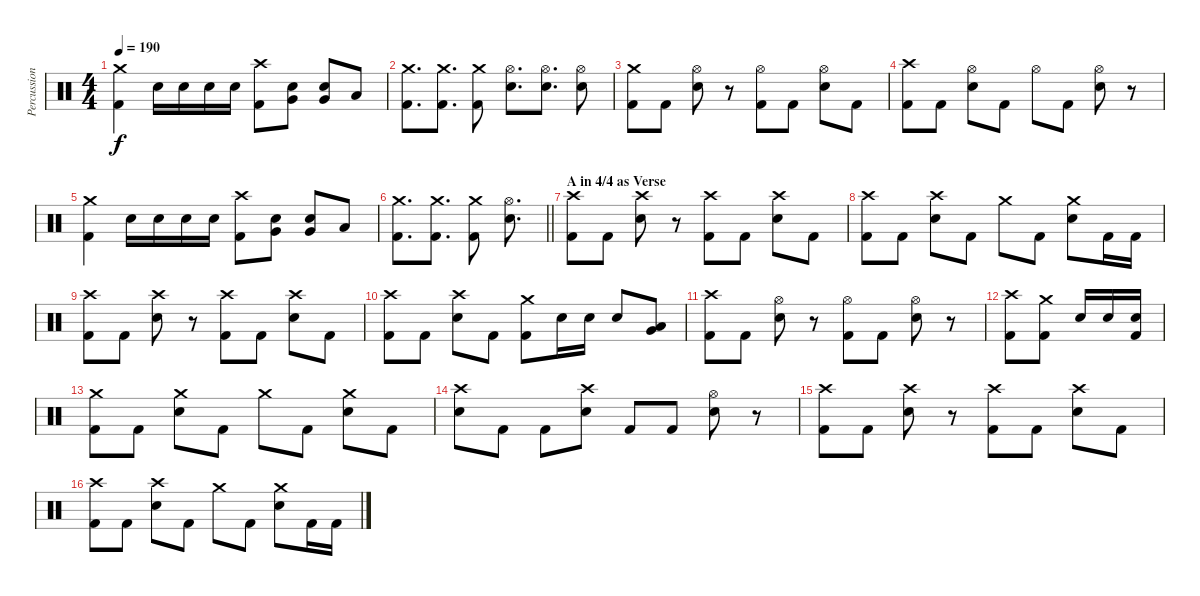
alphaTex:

\track ("Percussion" "Percussion") {instrument percussion}
\staff {score}
\articulation defaults
\ts (4 4)
\tempo 190
\clef neutral
\ks c
("Crash medium (hit)" "Kick (hit) 2").4{dy f} "Electric Snare (hit)".16 "Electric Snare (hit)".16 "Electric Snare (hit)".16 "Electric Snare (hit)".16 ("Crash high (hit)" "Kick (hit) 2").8 ("Very Low Tom (hit)" "Electric Snare (hit)").8 ("Very Low Tom (hit)" "Electric Snare (hit)").8 "Low Floor Tom (hit)".8 |
("Crash medium (hit)" "Kick (hit) 2").8{d} ("Crash medium (hit)" "Kick (hit) 2").8{d} ("Crash medium (hit)" "Kick (hit) 2").8 ("Hi-Hat (open)" "Electric Snare (hit)").8{d} ("Hi-Hat (open)" "Electric Snare (hit)").8{d} ("Hi-Hat (open)" "Electric Snare (hit)").8 |
("Crash medium (hit)" "Kick (hit) 2").8 "Kick (hit) 2".8 ("Hi-Hat (open)" "Electric Snare (hit)").8 r.8 ("Hi-Hat (open)" "Kick (hit) 2").8 "Kick (hit) 2".8 ("Hi-Hat (open)" "Electric Snare (hit)").8 "Kick (hit) 2".8 |
("Crash high (hit)" "Kick (hit) 2").8 "Kick (hit) 2".8 ("Hi-Hat (open)" "Electric Snare (hit)").8 "Kick (hit) 2".8 "Hi-Hat (open)".8 "Kick (hit) 2".8 ("Hi-Hat (open)" "Electric Snare (hit)").8 r.8 |
("Crash medium (hit)" "Kick (hit) 2").4 "Electric Snare (hit)".16 "Electric Snare (hit)".16 "Electric Snare (hit)".16 "Electric Snare (hit)".16 ("Crash high (hit)" "Kick (hit) 2").8 ("Very Low Tom (hit)" "Electric Snare (hit)").8 ("Very Low Tom (hit)" "Electric Snare (hit)").8 "Low Floor Tom (hit)".8 |
\barLineRight lightlight
("Crash medium (hit)" "Kick (hit) 2").8{d} ("Crash medium (hit)" "Kick (hit) 2").8{d} ("Crash medium (hit)" "Kick (hit) 2").8 ("Hi-Hat (open)" "Electric Snare (hit)").8{d} |
\section ("" "A in 4/4 as Verse")
("Crash high (hit)" "Kick (hit) 2").8 "Kick (hit) 2".8 ("Crash high (hit)" "Electric Snare (hit)").8 r.8 ("Crash high (hit)" "Kick (hit) 2").8 "Kick (hit) 2".8 ("Crash high (hit)" "Electric Snare (hit)").8 "Kick (hit) 2".8 |
("Crash high (hit)" "Kick (hit) 2").8 "Kick (hit) 2".8 ("Crash high (hit)" "Electric Snare (hit)").8 "Kick (hit) 2".8 "Crash medium (hit)".8 "Kick (hit) 2".8 ("Crash medium (hit)" "Electric Snare (hit)").8 "Kick (hit) 2".16 "Kick (hit) 2".16 |
("Crash high (hit)" "Kick (hit) 2").8 "Kick (hit) 2".8 ("Crash high (hit)" "Electric Snare (hit)").8 r.8 ("Crash high (hit)" "Kick (hit) 2").8 "Kick (hit) 2".8 ("Crash high (hit)" "Electric Snare (hit)").8 "Kick (hit) 2".8 |
("Crash high (hit)" "Kick (hit) 2").8 "Kick (hit) 2".8 ("Crash high (hit)" "Electric Snare (hit)").8 "Kick (hit) 2".8 ("Crash medium (hit)" "Kick (hit) 2").8 "Electric Snare (hit)".16 "Electric Snare (hit)".16 "Electric Snare (hit)".8 ("Very Low Tom (hit)" "Low Tom (hit)").8 |
("Crash high (hit)" "Kick (hit) 2").8 "Kick (hit) 2".8 ("Hi-Hat (open)" "Electric Snare (hit)").8 r.8 ("Hi-Hat (open)" "Kick (hit) 2").8 "Kick (hit) 2".8 ("Hi-Hat (open)" "Electric Snare (hit)").8 r.8 |
("Crash high (hit)" "Kick (hit) 2").8 ("Crash medium (hit)" "Kick (hit) 2").8 "Electric Snare (hit)".16 "Electric Snare (hit)".16 ("Electric Snare (hit)" "Kick (hit) 2").16 |
("Crash medium (hit)" "Kick (hit) 2").8 "Kick (hit) 2".8 ("Crash medium (hit)" "Electric Snare (hit)").8 "Kick (hit) 2".8 "Crash medium (hit)".8 "Kick (hit) 2".8 ("Crash medium (hit)" "Electric Snare (hit)").8 "Kick (hit) 2".8 |
("Crash high (hit)" "Electric Snare (hit)").8 "Kick (hit) 2".8 "Kick (hit) 2".8 ("Crash high (hit)" "Electric Snare (hit)").8 "Kick (hit) 2".8 "Kick (hit) 2".8 ("Hi-Hat (open)" "Electric Snare (hit)").8 r.8 |
("Crash high (hit)" "Kick (hit) 2").8 "Kick (hit) 2".8 ("Crash high (hit)" "Electric Snare (hit)").8 r.8 ("Crash high (hit)" "Kick (hit) 2").8 "Kick (hit) 2".8 ("Crash high (hit)" "Electric Snare (hit)").8 "Kick (hit) 2".8 |
("Crash high (hit)" "Kick (hit) 2").8 "Kick (hit) 2".8 ("Crash high (hit)" "Electric Snare (hit)").8 "Kick (hit) 2".8 "Crash medium (hit)".8 "Kick (hit) 2".8 ("Crash medium (hit)" "Electric Snare (hit)").8 "Kick (hit) 2".16 "Kick (hit) 2".16
